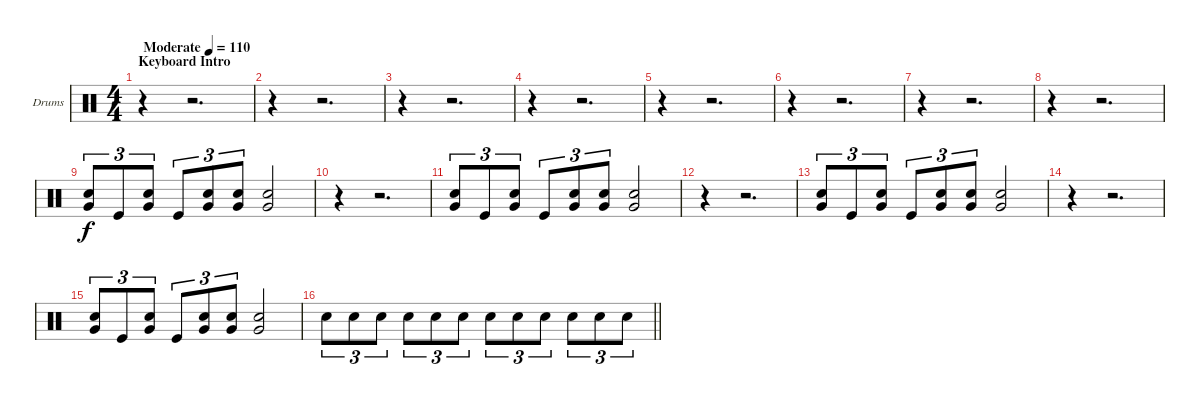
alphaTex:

\bracketExtendMode groupsimilarinstruments
\firstSystemTrackNameOrientation horizontal
\otherSystemsTrackNameOrientation horizontal
\track ("Drumkit" "Drums") {instrument percussion}
\staff {score}
\articulation defaults
\ts (4 4)
\beaming (8 2 2 2 2)
\section ("" "Keyboard Intro")
\tempo (110 "Moderate")
\clef neutral
\ks c
r.4{dy f} r.2{d} |
r.4 r.2{d} |
r.4 r.2{d} |
r.4 r.2{d} |
r.4 r.2{d} |
r.4 r.2{d} |
r.4 r.2{d} |
r.4 r.2{d} |
("Very Low Tom (hit)" "Snare (hit) 2").8{tu (3 2)} "Kick (hit)".8{tu (3 2)} ("Very Low Tom (hit)" "Snare (hit) 2").8{tu (3 2)} "Kick (hit)".8{tu (3 2)} ("Very Low Tom (hit)" "Snare (hit) 2").8{tu (3 2)} ("Very Low Tom (hit)" "Snare (hit) 2").8{tu (3 2)} ("Very Low Tom (hit)" "Snare (hit) 2").2 |
r.4 r.2{d} |
("Very Low Tom (hit)" "Snare (hit) 2").8{tu (3 2)} "Kick (hit)".8{tu (3 2)} ("Very Low Tom (hit)" "Snare (hit) 2").8{tu (3 2)} "Kick (hit)".8{tu (3 2)} ("Very Low Tom (hit)" "Snare (hit) 2").8{tu (3 2)} ("Very Low Tom (hit)" "Snare (hit) 2").8{tu (3 2)} ("Very Low Tom (hit)" "Snare (hit) 2").2 |
r.4 r.2{d} |
("Very Low Tom (hit)" "Snare (hit) 2").8{tu (3 2)} "Kick (hit)".8{tu (3 2)} ("Very Low Tom (hit)" "Snare (hit) 2").8{tu (3 2)} "Kick (hit)".8{tu (3 2)} ("Very Low Tom (hit)" "Snare (hit) 2").8{tu (3 2)} ("Very Low Tom (hit)" "Snare (hit) 2").8{tu (3 2)} ("Very Low Tom (hit)" "Snare (hit) 2").2 |
r.4 r.2{d} |
("Very Low Tom (hit)" "Snare (hit) 2").8{tu (3 2)} "Kick (hit)".8{tu (3 2)} ("Very Low Tom (hit)" "Snare (hit) 2").8{tu (3 2)} "Kick (hit)".8{tu (3 2)} ("Very Low Tom (hit)" "Snare (hit) 2").8{tu (3 2)} ("Very Low Tom (hit)" "Snare (hit) 2").8{tu (3 2)} ("Very Low Tom (hit)" "Snare (hit) 2").2 |
\barLineRight lightlight "Snare (hit) 2".8{tu (3 2)} "Snare (hit) 2".8{tu (3 2)} "Snare (hit) 2".8{tu (3 2)} "Snare (hit) 2".8{tu (3 2)} "Snare (hit) 2".8{tu (3 2)} "Snare (hit) 2".8{tu (3 2)} "Snare (hit) 2".8{tu (3 2)} "Snare (hit) 2".8{tu (3 2)} "Snare (hit) 2".8{tu (3 2)} "Snare (hit) 2".8{tu (3 2)} "Snare (hit) 2".8{tu (3 2)} "Snare (hit) 2".8{tu (3 2)}
